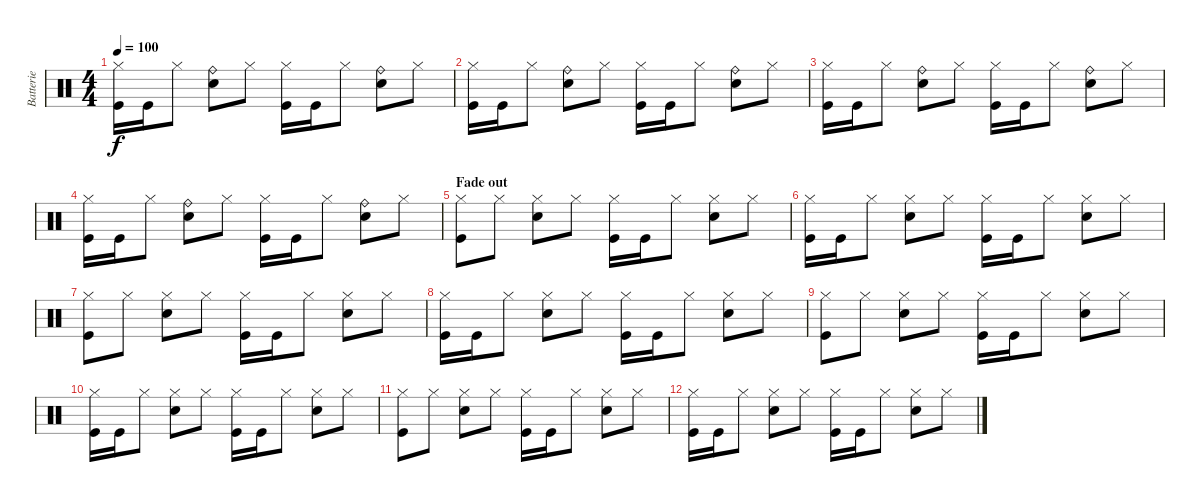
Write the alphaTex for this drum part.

\track ("Batterie " "Batterie ") {instrument percussion}
\staff {score}
\articulation defaults
\ts (4 4)
\tempo 100
\clef neutral
\ks c
("Hi-Hat (closed)" "Kick (hit)").16{dy f} "Kick (hit)".16 "Hi-Hat (closed)".8 ("Electric Snare (hit)" "Ride (bell)").8 "Hi-Hat (closed)".8 ("Hi-Hat (closed)" "Kick (hit)").16 "Kick (hit)".16 "Hi-Hat (closed)".8 ("Electric Snare (hit)" "Ride (bell)").8 "Hi-Hat (closed)".8 |
("Hi-Hat (closed)" "Kick (hit)").16 "Kick (hit)".16 "Hi-Hat (closed)".8 ("Electric Snare (hit)" "Ride (bell)").8 "Hi-Hat (closed)".8 ("Hi-Hat (closed)" "Kick (hit)").16 "Kick (hit)".16 "Hi-Hat (closed)".8 ("Electric Snare (hit)" "Ride (bell)").8 "Hi-Hat (closed)".8 |
("Hi-Hat (closed)" "Kick (hit)").16 "Kick (hit)".16 "Hi-Hat (closed)".8 ("Electric Snare (hit)" "Ride (bell)").8 "Hi-Hat (closed)".8 ("Hi-Hat (closed)" "Kick (hit)").16 "Kick (hit)".16 "Hi-Hat (closed)".8 ("Electric Snare (hit)" "Ride (bell)").8 "Hi-Hat (closed)".8 |
("Hi-Hat (closed)" "Kick (hit)").16 "Kick (hit)".16 "Hi-Hat (closed)".8 ("Electric Snare (hit)" "Ride (bell)").8 "Hi-Hat (closed)".8 ("Hi-Hat (closed)" "Kick (hit)").16 "Kick (hit)".16 "Hi-Hat (closed)".8 ("Electric Snare (hit)" "Ride (bell)").8 "Hi-Hat (closed)".8 |
\section ("" "Fade out")
("Hi-Hat (closed)" "Kick (hit)").8 "Hi-Hat (closed)".8 ("Electric Snare (hit)" "Hi-Hat (closed)").8 "Hi-Hat (closed)".8 ("Hi-Hat (closed)" "Kick (hit)").16 "Kick (hit)".16 "Hi-Hat (closed)".8 ("Electric Snare (hit)" "Hi-Hat (closed)").8 "Hi-Hat (closed)".8 |
("Hi-Hat (closed)" "Kick (hit)").16 "Kick (hit)".16 "Hi-Hat (closed)".8 ("Electric Snare (hit)" "Hi-Hat (closed)").8 "Hi-Hat (closed)".8 ("Hi-Hat (closed)" "Kick (hit)").16 "Kick (hit)".16 "Hi-Hat (closed)".8 ("Electric Snare (hit)" "Hi-Hat (closed)").8 "Hi-Hat (closed)".8 |
("Hi-Hat (closed)" "Kick (hit)").8 "Hi-Hat (closed)".8 ("Electric Snare (hit)" "Hi-Hat (closed)").8 "Hi-Hat (closed)".8 ("Hi-Hat (closed)" "Kick (hit)").16 "Kick (hit)".16 "Hi-Hat (closed)".8 ("Electric Snare (hit)" "Hi-Hat (closed)").8 "Hi-Hat (closed)".8 |
("Hi-Hat (closed)" "Kick (hit)").16 "Kick (hit)".16 "Hi-Hat (closed)".8 ("Electric Snare (hit)" "Hi-Hat (closed)").8 "Hi-Hat (closed)".8 ("Hi-Hat (closed)" "Kick (hit)").16 "Kick (hit)".16 "Hi-Hat (closed)".8 ("Electric Snare (hit)" "Hi-Hat (closed)").8 "Hi-Hat (closed)".8 |
("Hi-Hat (closed)" "Kick (hit)").8 "Hi-Hat (closed)".8 ("Electric Snare (hit)" "Hi-Hat (closed)").8 "Hi-Hat (closed)".8 ("Hi-Hat (closed)" "Kick (hit)").16 "Kick (hit)".16 "Hi-Hat (closed)".8 ("Electric Snare (hit)" "Hi-Hat (closed)").8 "Hi-Hat (closed)".8 |
("Hi-Hat (closed)" "Kick (hit)").16 "Kick (hit)".16 "Hi-Hat (closed)".8 ("Electric Snare (hit)" "Hi-Hat (closed)").8 "Hi-Hat (closed)".8 ("Hi-Hat (closed)" "Kick (hit)").16 "Kick (hit)".16 "Hi-Hat (closed)".8 ("Electric Snare (hit)" "Hi-Hat (closed)").8 "Hi-Hat (closed)".8 |
("Hi-Hat (closed)" "Kick (hit)").8 "Hi-Hat (closed)".8 ("Electric Snare (hit)" "Hi-Hat (closed)").8 "Hi-Hat (closed)".8 ("Hi-Hat (closed)" "Kick (hit)").16 "Kick (hit)".16 "Hi-Hat (closed)".8 ("Electric Snare (hit)" "Hi-Hat (closed)").8 "Hi-Hat (closed)".8 |
("Hi-Hat (closed)" "Kick (hit)").16 "Kick (hit)".16 "Hi-Hat (closed)".8 ("Electric Snare (hit)" "Hi-Hat (closed)").8 "Hi-Hat (closed)".8 ("Hi-Hat (closed)" "Kick (hit)").16 "Kick (hit)".16 "Hi-Hat (closed)".8 ("Electric Snare (hit)" "Hi-Hat (closed)").8 "Hi-Hat (closed)".8
